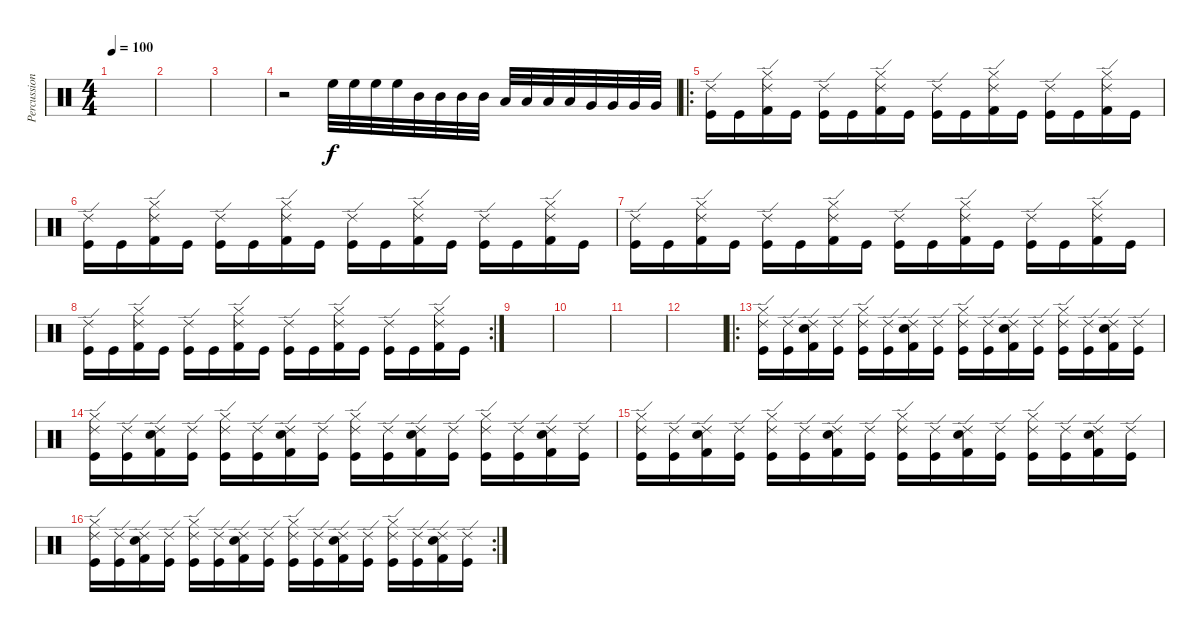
\track ("Percussions" "Percussion") {instrument percussion}
\staff {score}
\articulation defaults
\ts (4 4)
\tempo 100
\clef neutral
\ks c
|
|
|
r.2 "High Floor Tom (hit)".32 "High Floor Tom (hit)".32 "High Floor Tom (hit)".32 "High Floor Tom (hit)".32 "Mid Tom (hit)".32 "Mid Tom (hit)".32 "Mid Tom (hit)".32 "Mid Tom (hit)".32 "Low Tom (hit)".32 "Low Tom (hit)".32 "Low Tom (hit)".32 "Low Tom (hit)".32 "Very Low Tom (hit)".32 "Very Low Tom (hit)".32 "Very Low Tom (hit)".32 "Very Low Tom (hit)".32 |
\ro
("Kick (hit)" "Ride (edge) 2").16 "Kick (hit)".16 ("Kick (hit) 2" "Ride (edge) 2" "Hi-Hat (closed)").16 "Kick (hit)".16 ("Kick (hit)" "Ride (edge) 2").16 "Kick (hit)".16 ("Kick (hit) 2" "Ride (edge) 2" "Hi-Hat (closed)").16 "Kick (hit)".16 ("Kick (hit)" "Ride (edge) 2").16 "Kick (hit)".16 ("Kick (hit) 2" "Ride (edge) 2" "Hi-Hat (closed)").16 "Kick (hit)".16 ("Kick (hit)" "Ride (edge) 2").16 "Kick (hit)".16 ("Kick (hit) 2" "Ride (edge) 2" "Hi-Hat (closed)").16 "Kick (hit)".16 |
("Kick (hit)" "Ride (edge) 2").16 "Kick (hit)".16 ("Kick (hit) 2" "Ride (edge) 2" "Hi-Hat (closed)").16 "Kick (hit)".16 ("Kick (hit)" "Ride (edge) 2").16 "Kick (hit)".16 ("Kick (hit) 2" "Ride (edge) 2" "Hi-Hat (closed)").16 "Kick (hit)".16 ("Kick (hit)" "Ride (edge) 2").16 "Kick (hit)".16 ("Kick (hit) 2" "Ride (edge) 2" "Hi-Hat (closed)").16 "Kick (hit)".16 ("Kick (hit)" "Ride (edge) 2").16 "Kick (hit)".16 ("Kick (hit) 2" "Ride (edge) 2" "Hi-Hat (closed)").16 "Kick (hit)".16 |
("Kick (hit)" "Ride (edge) 2").16 "Kick (hit)".16 ("Kick (hit) 2" "Ride (edge) 2" "Hi-Hat (closed)").16 "Kick (hit)".16 ("Kick (hit)" "Ride (edge) 2").16 "Kick (hit)".16 ("Kick (hit) 2" "Ride (edge) 2" "Hi-Hat (closed)").16 "Kick (hit)".16 ("Kick (hit)" "Ride (edge) 2").16 "Kick (hit)".16 ("Kick (hit) 2" "Ride (edge) 2" "Hi-Hat (closed)").16 "Kick (hit)".16 ("Kick (hit)" "Ride (edge) 2").16 "Kick (hit)".16 ("Kick (hit) 2" "Ride (edge) 2" "Hi-Hat (closed)").16 "Kick (hit)".16 |
\rc 2
("Kick (hit)" "Ride (edge) 2").16 "Kick (hit)".16 ("Kick (hit) 2" "Ride (edge) 2" "Hi-Hat (closed)").16 "Kick (hit)".16 ("Kick (hit)" "Ride (edge) 2").16 "Kick (hit)".16 ("Kick (hit) 2" "Ride (edge) 2" "Hi-Hat (closed)").16 "Kick (hit)".16 ("Kick (hit)" "Ride (edge) 2").16 "Kick (hit)".16 ("Kick (hit) 2" "Ride (edge) 2" "Hi-Hat (closed)").16 "Kick (hit)".16 ("Kick (hit)" "Ride (edge) 2").16 "Kick (hit)".16 ("Kick (hit) 2" "Ride (edge) 2" "Hi-Hat (closed)").16 "Kick (hit)".16 |
|
|
|
|
\ro
("Kick (hit)" "Ride (edge) 2" "Hi-Hat (closed)").16 ("Kick (hit)" "Ride (edge) 2").16 ("Kick (hit) 2" "Ride (edge) 2" "Snare (hit) 2").16 ("Kick (hit)" "Ride (edge) 2").16 ("Kick (hit)" "Ride (edge) 2" "Hi-Hat (closed)").16 ("Kick (hit)" "Ride (edge) 2").16 ("Kick (hit) 2" "Ride (edge) 2" "Snare (hit) 2").16 ("Kick (hit)" "Ride (edge) 2").16 ("Kick (hit)" "Ride (edge) 2" "Hi-Hat (closed)").16 ("Kick (hit)" "Ride (edge) 2").16 ("Kick (hit) 2" "Ride (edge) 2" "Snare (hit) 2").16 ("Kick (hit)" "Ride (edge) 2").16 ("Kick (hit)" "Ride (edge) 2" "Hi-Hat (closed)").16 ("Kick (hit)" "Ride (edge) 2").16 ("Kick (hit) 2" "Ride (edge) 2" "Snare (hit) 2").16 ("Kick (hit)" "Ride (edge) 2").16 |
("Kick (hit)" "Ride (edge) 2" "Hi-Hat (closed)").16 ("Kick (hit)" "Ride (edge) 2").16 ("Kick (hit) 2" "Ride (edge) 2" "Snare (hit) 2").16 ("Kick (hit)" "Ride (edge) 2").16 ("Kick (hit)" "Ride (edge) 2" "Hi-Hat (closed)").16 ("Kick (hit)" "Ride (edge) 2").16 ("Kick (hit) 2" "Ride (edge) 2" "Snare (hit) 2").16 ("Kick (hit)" "Ride (edge) 2").16 ("Kick (hit)" "Ride (edge) 2" "Hi-Hat (closed)").16 ("Kick (hit)" "Ride (edge) 2").16 ("Kick (hit) 2" "Ride (edge) 2" "Snare (hit) 2").16 ("Kick (hit)" "Ride (edge) 2").16 ("Kick (hit)" "Ride (edge) 2" "Hi-Hat (closed)").16 ("Kick (hit)" "Ride (edge) 2").16 ("Kick (hit) 2" "Ride (edge) 2" "Snare (hit) 2").16 ("Kick (hit)" "Ride (edge) 2").16 |
("Kick (hit)" "Ride (edge) 2" "Hi-Hat (closed)").16 ("Kick (hit)" "Ride (edge) 2").16 ("Kick (hit) 2" "Ride (edge) 2" "Snare (hit) 2").16 ("Kick (hit)" "Ride (edge) 2").16 ("Kick (hit)" "Ride (edge) 2" "Hi-Hat (closed)").16 ("Kick (hit)" "Ride (edge) 2").16 ("Kick (hit) 2" "Ride (edge) 2" "Snare (hit) 2").16 ("Kick (hit)" "Ride (edge) 2").16 ("Kick (hit)" "Ride (edge) 2" "Hi-Hat (closed)").16 ("Kick (hit)" "Ride (edge) 2").16 ("Kick (hit) 2" "Ride (edge) 2" "Snare (hit) 2").16 ("Kick (hit)" "Ride (edge) 2").16 ("Kick (hit)" "Ride (edge) 2" "Hi-Hat (closed)").16 ("Kick (hit)" "Ride (edge) 2").16 ("Kick (hit) 2" "Ride (edge) 2" "Snare (hit) 2").16 ("Kick (hit)" "Ride (edge) 2").16 |
\rc 2
("Kick (hit)" "Ride (edge) 2" "Hi-Hat (closed)").16 ("Kick (hit)" "Ride (edge) 2").16 ("Kick (hit) 2" "Ride (edge) 2" "Snare (hit) 2").16 ("Kick (hit)" "Ride (edge) 2").16 ("Kick (hit)" "Ride (edge) 2" "Hi-Hat (closed)").16 ("Kick (hit)" "Ride (edge) 2").16 ("Kick (hit) 2" "Ride (edge) 2" "Snare (hit) 2").16 ("Kick (hit)" "Ride (edge) 2").16 ("Kick (hit)" "Ride (edge) 2" "Hi-Hat (closed)").16 ("Kick (hit)" "Ride (edge) 2").16 ("Kick (hit) 2" "Ride (edge) 2" "Snare (hit) 2").16 ("Kick (hit)" "Ride (edge) 2").16 ("Kick (hit)" "Ride (edge) 2" "Hi-Hat (closed)").16 ("Kick (hit)" "Ride (edge) 2").16 ("Kick (hit) 2" "Ride (edge) 2" "Snare (hit) 2").16 ("Kick (hit)" "Ride (edge) 2").16
